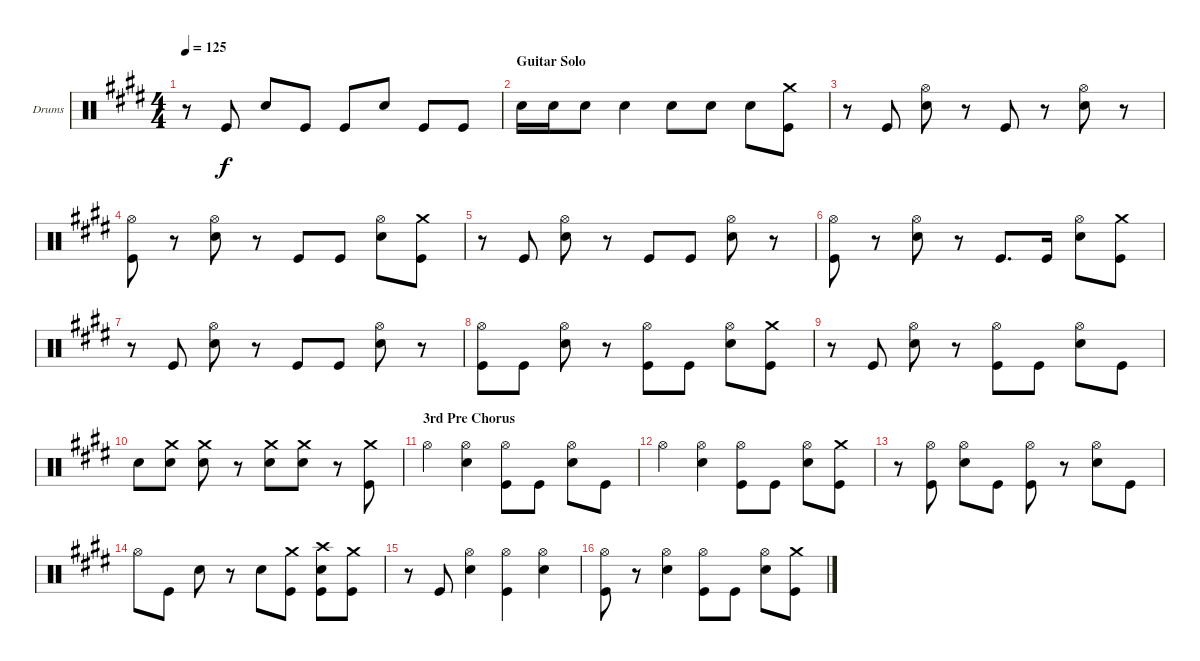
\bracketExtendMode groupsimilarinstruments
\firstSystemTrackNameOrientation horizontal
\otherSystemsTrackNameOrientation horizontal
\track ("Drumkit" "Drums") {instrument percussion}
\staff {score}
\articulation defaults
\ts (4 4)
\tempo 125
\clef neutral
\ks e
r.8{dy f} "Kick (hit)".8 "Snare (hit) 2".8 "Kick (hit)".8 "Kick (hit)".8 "Snare (hit) 2".8 "Kick (hit)".8 "Kick (hit)".8 |
\section ("" "Guitar Solo")
"Snare (hit) 2".16 "Snare (hit) 2".16 "Snare (hit) 2".8 "Snare (hit) 2".4 "Snare (hit) 2".8 "Snare (hit) 2".8 "Snare (hit) 2".8 ("Crash medium (hit)" "Kick (hit)").8 |
r.8 "Kick (hit)".8 ("Hi-Hat (open)" "Snare (hit) 2").8 r.8 "Kick (hit)".8 r.8 ("Hi-Hat (open)" "Snare (hit) 2").8 r.8 |
("Hi-Hat (open)" "Kick (hit)").8 r.8 ("Hi-Hat (open)" "Snare (hit) 2").8 r.8 "Kick (hit)".8 "Kick (hit)".8 ("Hi-Hat (open)" "Snare (hit) 2").8 ("Crash medium (hit)" "Kick (hit)").8 |
r.8 "Kick (hit)".8 ("Hi-Hat (open)" "Snare (hit) 2").8 r.8 "Kick (hit)".8 "Kick (hit)".8 ("Hi-Hat (open)" "Snare (hit) 2").8 r.8 |
("Hi-Hat (open)" "Kick (hit)").8 r.8 ("Hi-Hat (open)" "Snare (hit) 2").8 r.8 "Kick (hit)".8{d} "Kick (hit)".16 ("Hi-Hat (open)" "Snare (hit) 2").8 ("Crash medium (hit)" "Kick (hit)").8 |
r.8 "Kick (hit)".8 ("Hi-Hat (open)" "Snare (hit) 2").8 r.8 "Kick (hit)".8 "Kick (hit)".8 ("Hi-Hat (open)" "Snare (hit) 2").8 r.8 |
("Hi-Hat (open)" "Kick (hit)").8 "Kick (hit)".8 ("Hi-Hat (open)" "Snare (hit) 2").8 r.8 ("Hi-Hat (open)" "Kick (hit)").8 "Kick (hit)".8 ("Hi-Hat (open)" "Snare (hit) 2").8 ("Crash medium (hit)" "Kick (hit)").8 |
r.8 "Kick (hit)".8 ("Hi-Hat (open)" "Snare (hit) 2").8 r.8 ("Hi-Hat (open)" "Kick (hit)").8 "Kick (hit)".8 ("Hi-Hat (open)" "Snare (hit) 2").8 "Kick (hit)".8 |
"Snare (hit) 2".8 ("Crash medium (hit)" "Snare (hit) 2").8 ("Crash medium (hit)" "Snare (hit) 2").8 r.8 ("Crash medium (hit)" "Snare (hit) 2").8 ("Crash medium (hit)" "Snare (hit) 2").8 r.8 ("Crash medium (hit)" "Kick (hit)").8 |
\section ("" "3rd Pre Chorus")
"Hi-Hat (open)".4 ("Hi-Hat (open)" "Snare (hit) 2").4 ("Hi-Hat (open)" "Kick (hit)").8 "Kick (hit)".8 ("Hi-Hat (open)" "Snare (hit) 2").8 "Kick (hit)".8 |
"Hi-Hat (open)".4 ("Hi-Hat (open)" "Snare (hit) 2").4 ("Hi-Hat (open)" "Kick (hit)").8 "Kick (hit)".8 ("Hi-Hat (open)" "Snare (hit) 2").8 ("Crash medium (hit)" "Kick (hit)").8 |
r.8 ("Hi-Hat (open)" "Kick (hit)").8 ("Hi-Hat (open)" "Snare (hit) 2").8 "Kick (hit)".8 ("Hi-Hat (open)" "Kick (hit)").8 r.8 ("Hi-Hat (open)" "Snare (hit) 2").8 "Kick (hit)".8 |
"Hi-Hat (open)".8 "Kick (hit)".8 "Snare (hit) 2".8 r.8 "Snare (hit) 2".8 ("Crash medium (hit)" "Kick (hit)").8 ("Crash high (hit)" "Snare (hit) 2" "Kick (hit)").8 ("Crash medium (hit)" "Kick (hit)").8 |
r.8 "Kick (hit)".8 ("Hi-Hat (open)" "Snare (hit) 2").4 ("Hi-Hat (open)" "Kick (hit)").4 ("Hi-Hat (open)" "Snare (hit) 2").4 |
("Hi-Hat (open)" "Kick (hit)").8 r.8 ("Hi-Hat (open)" "Snare (hit) 2").4 ("Hi-Hat (open)" "Kick (hit)").8 "Kick (hit)".8 ("Hi-Hat (open)" "Snare (hit) 2").8 ("Crash medium (hit)" "Kick (hit)").8
